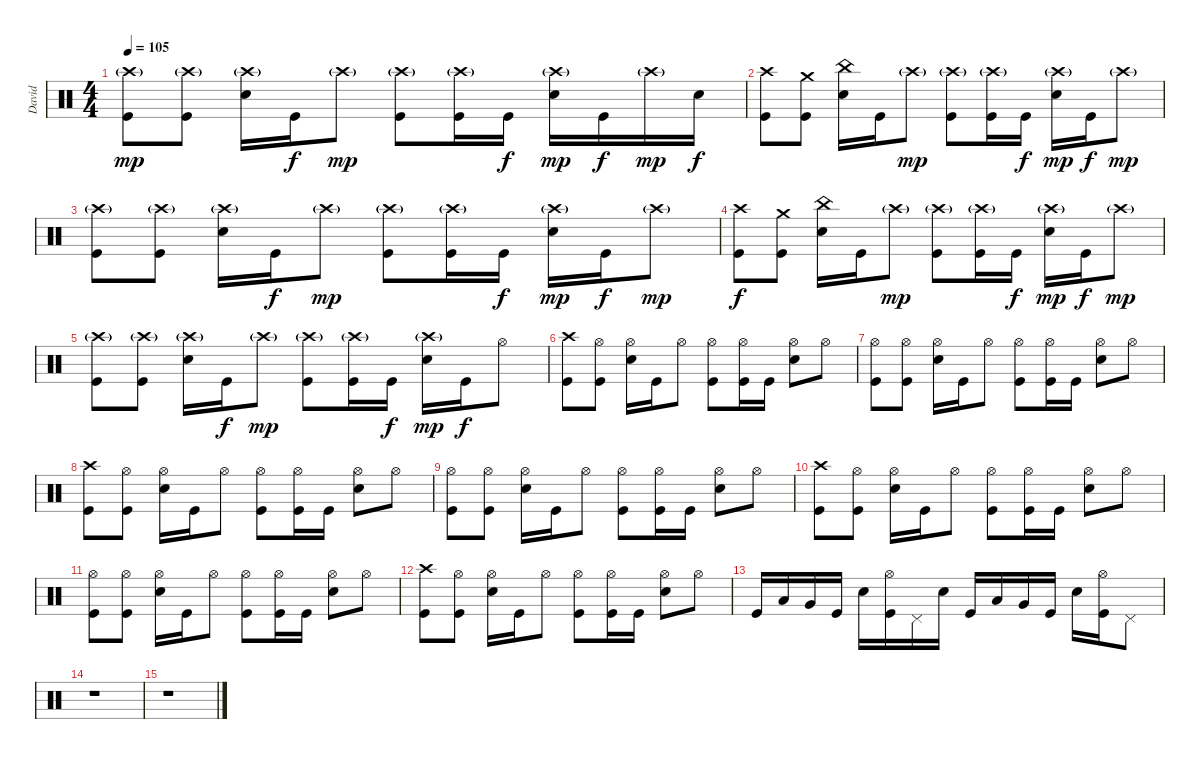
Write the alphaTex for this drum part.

\track ("David" "David") {instrument percussion}
\staff {score}
\articulation defaults
\ts (4 4)
\tempo 105
\clef neutral
\ks c
("Crash high (hit)"{g} "Kick (hit)").8{dy mp} ("Kick (hit)" "Crash high (hit)"{g}).8 ("Snare (hit) 2" "Crash high (hit)"{g}).16 "Kick (hit)".16{dy f} "Crash high (hit)"{g}.8{dy mp} ("Crash high (hit)"{g} "Kick (hit)").8 ("Crash high (hit)"{g} "Kick (hit)").16 "Kick (hit)".16{dy f} ("Crash high (hit)"{g} "Snare (hit) 2").16{dy mp} "Kick (hit)".16{dy f} "Crash high (hit)"{g}.16{dy mp} "Snare (hit) 2".16{dy f} |
("Crash high (hit)" "Kick (hit)").8 ("Kick (hit)" "Crash medium (hit)").8 ("Snare (hit) 2" "China (hit)").16 "Kick (hit)".16 "Crash high (hit)"{g}.8{dy mp} ("Crash high (hit)"{g} "Kick (hit)").8 ("Crash high (hit)"{g} "Kick (hit)").16 "Kick (hit)".16{dy f} ("Crash high (hit)"{g} "Snare (hit) 2").16{dy mp} "Kick (hit)".16{dy f} "Crash high (hit)"{g}.8{dy mp} |
("Crash high (hit)"{g} "Kick (hit)").8 ("Kick (hit)" "Crash high (hit)"{g}).8 ("Snare (hit) 2" "Crash high (hit)"{g}).16 "Kick (hit)".16{dy f} "Crash high (hit)"{g}.8{dy mp} ("Crash high (hit)"{g} "Kick (hit)").8 ("Crash high (hit)"{g} "Kick (hit)").16 "Kick (hit)".16{dy f} ("Crash high (hit)"{g} "Snare (hit) 2").16{dy mp} "Kick (hit)".16{dy f} "Crash high (hit)"{g}.8{dy mp} |
("Crash high (hit)" "Kick (hit)").8{dy f} ("Kick (hit)" "Crash medium (hit)").8 ("Snare (hit) 2" "China (hit)").16 "Kick (hit)".16 "Crash high (hit)"{g}.8{dy mp} ("Crash high (hit)"{g} "Kick (hit)").8 ("Crash high (hit)"{g} "Kick (hit)").16 "Kick (hit)".16{dy f} ("Crash high (hit)"{g} "Snare (hit) 2").16{dy mp} "Kick (hit)".16{dy f} "Crash high (hit)"{g}.8{dy mp} |
("Crash high (hit)"{g} "Kick (hit)").8 ("Kick (hit)" "Crash high (hit)"{g}).8 ("Snare (hit) 2" "Crash high (hit)"{g}).16 "Kick (hit)".16{dy f} "Crash high (hit)"{g}.8{dy mp} ("Crash high (hit)"{g} "Kick (hit)").8 ("Crash high (hit)"{g} "Kick (hit)").16 "Kick (hit)".16{dy f} ("Crash high (hit)"{g} "Snare (hit) 2").16{dy mp} "Kick (hit)".16{dy f} "Hi-Hat (open)".8 |
("Kick (hit)" "Crash high (hit)").8 ("Kick (hit)" "Hi-Hat (open)").8 ("Snare (hit) 2" "Hi-Hat (open)").16 "Kick (hit)".16 "Hi-Hat (open)".8 ("Hi-Hat (open)" "Kick (hit)").8 ("Hi-Hat (open)" "Kick (hit)").16 "Kick (hit)".16 ("Hi-Hat (open)" "Snare (hit) 2").8 "Hi-Hat (open)".8 |
("Hi-Hat (open)" "Kick (hit)").8 ("Kick (hit)" "Hi-Hat (open)").8 ("Snare (hit) 2" "Hi-Hat (open)").16 "Kick (hit)".16 "Hi-Hat (open)".8 ("Hi-Hat (open)" "Kick (hit)").8 ("Hi-Hat (open)" "Kick (hit)").16 "Kick (hit)".16 ("Hi-Hat (open)" "Snare (hit) 2").8 "Hi-Hat (open)".8 |
("Kick (hit)" "Crash high (hit)").8 ("Kick (hit)" "Hi-Hat (open)").8 ("Snare (hit) 2" "Hi-Hat (open)").16 "Kick (hit)".16 "Hi-Hat (open)".8 ("Hi-Hat (open)" "Kick (hit)").8 ("Hi-Hat (open)" "Kick (hit)").16 "Kick (hit)".16 ("Hi-Hat (open)" "Snare (hit) 2").8 "Hi-Hat (open)".8 |
("Hi-Hat (open)" "Kick (hit)").8 ("Kick (hit)" "Hi-Hat (open)").8 ("Snare (hit) 2" "Hi-Hat (open)").16 "Kick (hit)".16 "Hi-Hat (open)".8 ("Hi-Hat (open)" "Kick (hit)").8 ("Hi-Hat (open)" "Kick (hit)").16 "Kick (hit)".16 ("Hi-Hat (open)" "Snare (hit) 2").8 "Hi-Hat (open)".8 |
("Kick (hit)" "Crash high (hit)").8 ("Kick (hit)" "Hi-Hat (open)").8 ("Snare (hit) 2" "Hi-Hat (open)").16 "Kick (hit)".16 "Hi-Hat (open)".8 ("Hi-Hat (open)" "Kick (hit)").8 ("Hi-Hat (open)" "Kick (hit)").16 "Kick (hit)".16 ("Hi-Hat (open)" "Snare (hit) 2").8 "Hi-Hat (open)".8 |
("Hi-Hat (open)" "Kick (hit)").8 ("Kick (hit)" "Hi-Hat (open)").8 ("Snare (hit) 2" "Hi-Hat (open)").16 "Kick (hit)".16 "Hi-Hat (open)".8 ("Hi-Hat (open)" "Kick (hit)").8 ("Hi-Hat (open)" "Kick (hit)").16 "Kick (hit)".16 ("Hi-Hat (open)" "Snare (hit) 2").8 "Hi-Hat (open)".8 |
("Kick (hit)" "Crash high (hit)").8 ("Kick (hit)" "Hi-Hat (open)").8 ("Snare (hit) 2" "Hi-Hat (open)").16 "Kick (hit)".16 "Hi-Hat (open)".8 ("Hi-Hat (open)" "Kick (hit)").8 ("Hi-Hat (open)" "Kick (hit)").16 "Kick (hit)".16 ("Hi-Hat (open)" "Snare (hit) 2").8 "Hi-Hat (open)".8 |
"Kick (hit)".16 "Low Tom (hit)".16 "Very Low Tom (hit)".16 "Kick (hit)".16 "Snare (hit) 2".16 ("Kick (hit)" "Hi-Hat (open)").16 "Pedal Hi-Hat (hit)".16 "Snare (hit) 2".16 "Kick (hit)".16 "Low Tom (hit)".16 "Very Low Tom (hit)".16 "Kick (hit)".16 "Snare (hit) 2".16 ("Kick (hit)" "Hi-Hat (open)").16 "Pedal Hi-Hat (hit)".8 |
r.1 |
r.1
